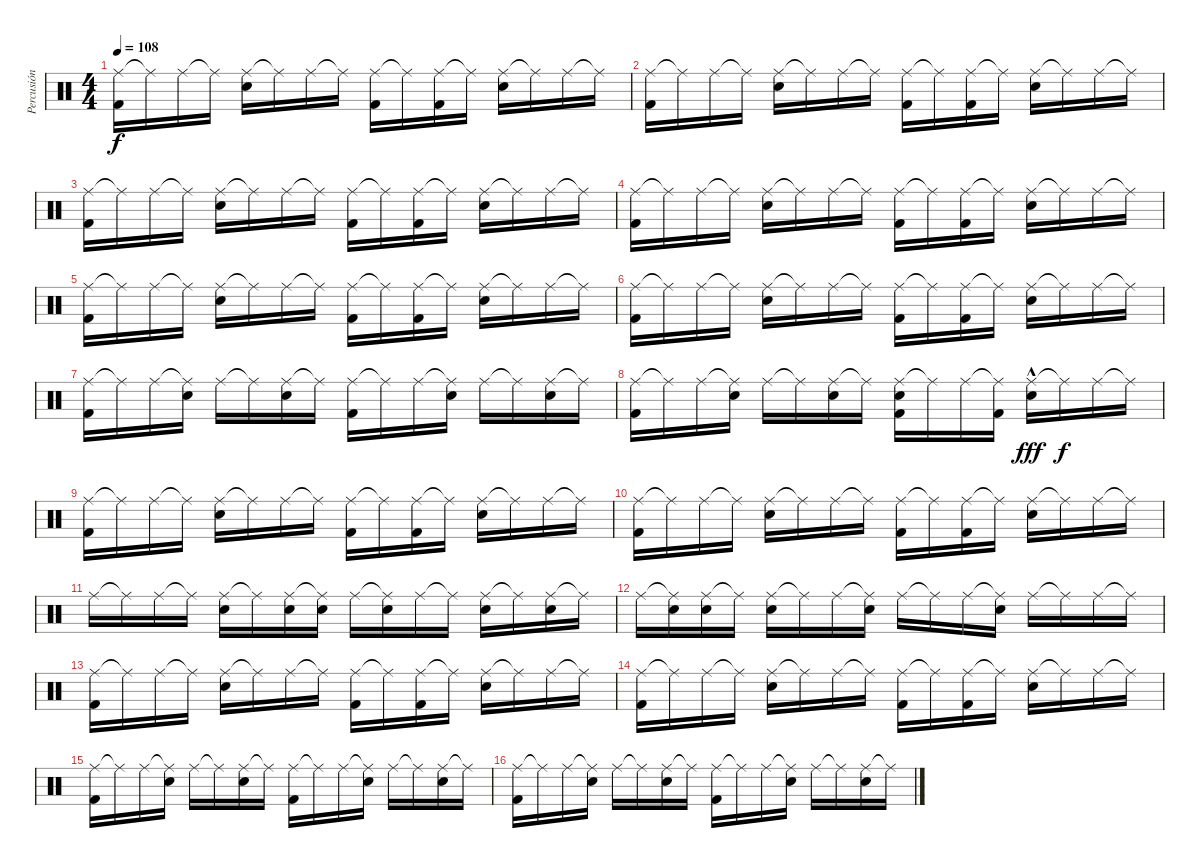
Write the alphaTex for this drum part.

\track ("Percusión" "Percusión") {instrument percussion}
\staff {score}
\articulation defaults
\ts (4 4)
\tempo 108
\clef neutral
\ks c
("Ride (middle)" "Kick (hit) 2").16{dy f} "Ride (middle)"{t}.16 "Ride (middle)".16 "Ride (middle)"{t}.16 ("Ride (middle)" "Snare (hit) 2").16 "Ride (middle)"{t}.16 "Ride (middle)".16 "Ride (middle)"{t}.16 ("Ride (middle)" "Kick (hit) 2").16 "Ride (middle)"{t}.16 ("Ride (middle)" "Kick (hit) 2").16 "Ride (middle)"{t}.16 ("Ride (middle)" "Snare (hit) 2").16 "Ride (middle)"{t}.16 "Ride (middle)".16 "Ride (middle)"{t}.16 |
("Ride (middle)" "Kick (hit) 2").16 "Ride (middle)"{t}.16 "Ride (middle)".16 "Ride (middle)"{t}.16 ("Ride (middle)" "Snare (hit) 2").16 "Ride (middle)"{t}.16 "Ride (middle)".16 "Ride (middle)"{t}.16 ("Ride (middle)" "Kick (hit) 2").16 "Ride (middle)"{t}.16 ("Ride (middle)" "Kick (hit) 2").16 "Ride (middle)"{t}.16 ("Ride (middle)" "Snare (hit) 2").16 "Ride (middle)"{t}.16 "Ride (middle)".16 "Ride (middle)"{t}.16 |
("Ride (middle)" "Kick (hit) 2").16 "Ride (middle)"{t}.16 "Ride (middle)".16 "Ride (middle)"{t}.16 ("Ride (middle)" "Snare (hit) 2").16 "Ride (middle)"{t}.16 "Ride (middle)".16 "Ride (middle)"{t}.16 ("Ride (middle)" "Kick (hit) 2").16 "Ride (middle)"{t}.16 ("Ride (middle)" "Kick (hit) 2").16 "Ride (middle)"{t}.16 ("Ride (middle)" "Snare (hit) 2").16 "Ride (middle)"{t}.16 "Ride (middle)".16 "Ride (middle)"{t}.16 |
("Ride (middle)" "Kick (hit) 2").16 "Ride (middle)"{t}.16 "Ride (middle)".16 "Ride (middle)"{t}.16 ("Ride (middle)" "Snare (hit) 2").16 "Ride (middle)"{t}.16 "Ride (middle)".16 "Ride (middle)"{t}.16 ("Ride (middle)" "Kick (hit) 2").16 "Ride (middle)"{t}.16 ("Ride (middle)" "Kick (hit) 2").16 "Ride (middle)"{t}.16 ("Ride (middle)" "Snare (hit) 2").16 "Ride (middle)"{t}.16 "Ride (middle)".16 "Ride (middle)"{t}.16 |
("Ride (middle)" "Kick (hit) 2").16 "Ride (middle)"{t}.16 "Ride (middle)".16 "Ride (middle)"{t}.16 ("Ride (middle)" "Snare (hit) 2").16 "Ride (middle)"{t}.16 "Ride (middle)".16 "Ride (middle)"{t}.16 ("Ride (middle)" "Kick (hit) 2").16 "Ride (middle)"{t}.16 ("Ride (middle)" "Kick (hit) 2").16 "Ride (middle)"{t}.16 ("Ride (middle)" "Snare (hit) 2").16 "Ride (middle)"{t}.16 "Ride (middle)".16 "Ride (middle)"{t}.16 |
("Ride (middle)" "Kick (hit) 2").16 "Ride (middle)"{t}.16 "Ride (middle)".16 "Ride (middle)"{t}.16 ("Ride (middle)" "Snare (hit) 2").16 "Ride (middle)"{t}.16 "Ride (middle)".16 "Ride (middle)"{t}.16 ("Ride (middle)" "Kick (hit) 2").16 "Ride (middle)"{t}.16 ("Ride (middle)" "Kick (hit) 2").16 "Ride (middle)"{t}.16 ("Ride (middle)" "Snare (hit) 2").16 "Ride (middle)"{t}.16 "Ride (middle)".16 "Ride (middle)"{t}.16 |
("Ride (middle)" "Kick (hit) 2").16 "Ride (middle)"{t}.16 "Ride (middle)".16 ("Ride (middle)"{t} "Snare (hit) 2").16 "Ride (middle)".16 "Ride (middle)"{t}.16 ("Ride (middle)" "Snare (hit) 2").16 "Ride (middle)"{t}.16 ("Ride (middle)" "Kick (hit) 2").16 "Ride (middle)"{t}.16 "Ride (middle)".16 ("Ride (middle)"{t} "Snare (hit) 2").16 "Ride (middle)".16 "Ride (middle)"{t}.16 ("Ride (middle)" "Snare (hit) 2").16 "Ride (middle)"{t}.16 |
("Ride (middle)" "Kick (hit) 2").16 "Ride (middle)"{t}.16 "Ride (middle)".16 ("Ride (middle)"{t} "Snare (hit) 2").16 "Ride (middle)".16 "Ride (middle)"{t}.16 ("Ride (middle)" "Snare (hit) 2").16 "Ride (middle)"{t}.16 ("Ride (middle)" "Snare (hit) 2" "Kick (hit) 2").16 "Ride (middle)"{t}.16 "Ride (middle)".16 ("Ride (middle)"{t} "Kick (hit) 2").16 ("Ride (middle)" "Snare (hit) 2"{hac}).16{dy fff} "Ride (middle)"{t}.16{dy f} "Ride (middle)".16 "Ride (middle)"{t}.16 |
("Ride (middle)" "Kick (hit) 2").16 "Ride (middle)"{t}.16 "Ride (middle)".16 "Ride (middle)"{t}.16 ("Ride (middle)" "Snare (hit) 2").16 "Ride (middle)"{t}.16 "Ride (middle)".16 "Ride (middle)"{t}.16 ("Ride (middle)" "Kick (hit) 2").16 "Ride (middle)"{t}.16 ("Ride (middle)" "Kick (hit) 2").16 "Ride (middle)"{t}.16 ("Ride (middle)" "Snare (hit) 2").16 "Ride (middle)"{t}.16 "Ride (middle)".16 "Ride (middle)"{t}.16 |
("Ride (middle)" "Kick (hit) 2").16 "Ride (middle)"{t}.16 "Ride (middle)".16 "Ride (middle)"{t}.16 ("Ride (middle)" "Snare (hit) 2").16 "Ride (middle)"{t}.16 "Ride (middle)".16 "Ride (middle)"{t}.16 ("Ride (middle)" "Kick (hit) 2").16 "Ride (middle)"{t}.16 ("Ride (middle)" "Kick (hit) 2").16 "Ride (middle)"{t}.16 ("Ride (middle)" "Snare (hit) 2").16 "Ride (middle)"{t}.16 "Ride (middle)".16 "Ride (middle)"{t}.16 |
"Ride (middle)".16 "Ride (middle)"{t}.16 "Ride (middle)".16 "Ride (middle)"{t}.16 ("Ride (middle)" "Snare (hit) 2").16 "Ride (middle)"{t}.16 ("Ride (middle)" "Snare (hit) 2").16 ("Ride (middle)"{t} "Snare (hit) 2").16 "Ride (middle)".16 ("Ride (middle)"{t} "Snare (hit) 2").16 "Ride (middle)".16 "Ride (middle)"{t}.16 ("Ride (middle)" "Snare (hit) 2").16 "Ride (middle)"{t}.16 ("Ride (middle)" "Snare (hit) 2").16 "Ride (middle)"{t}.16 |
"Ride (middle)".16 ("Ride (middle)"{t} "Snare (hit) 2").16 ("Ride (middle)" "Snare (hit) 2").16 "Ride (middle)"{t}.16 ("Ride (middle)" "Snare (hit) 2").16 "Ride (middle)"{t}.16 "Ride (middle)".16 ("Ride (middle)"{t} "Snare (hit) 2").16 "Ride (middle)".16 "Ride (middle)"{t}.16 "Ride (middle)".16 ("Ride (middle)"{t} "Snare (hit) 2").16 "Ride (middle)".16 "Ride (middle)"{t}.16 "Ride (middle)".16 "Ride (middle)"{t}.16 |
("Ride (middle)" "Kick (hit) 2").16 "Ride (middle)"{t}.16 "Ride (middle)".16 "Ride (middle)"{t}.16 ("Ride (middle)" "Snare (hit) 2").16 "Ride (middle)"{t}.16 "Ride (middle)".16 "Ride (middle)"{t}.16 ("Ride (middle)" "Kick (hit) 2").16 "Ride (middle)"{t}.16 ("Ride (middle)" "Kick (hit) 2").16 "Ride (middle)"{t}.16 ("Ride (middle)" "Snare (hit) 2").16 "Ride (middle)"{t}.16 "Ride (middle)".16 "Ride (middle)"{t}.16 |
("Ride (middle)" "Kick (hit) 2").16 "Ride (middle)"{t}.16 "Ride (middle)".16 "Ride (middle)"{t}.16 ("Ride (middle)" "Snare (hit) 2").16 "Ride (middle)"{t}.16 "Ride (middle)".16 "Ride (middle)"{t}.16 ("Ride (middle)" "Kick (hit) 2").16 "Ride (middle)"{t}.16 ("Ride (middle)" "Kick (hit) 2").16 "Ride (middle)"{t}.16 ("Ride (middle)" "Snare (hit) 2").16 "Ride (middle)"{t}.16 "Ride (middle)".16 "Ride (middle)"{t}.16 |
("Ride (middle)" "Kick (hit) 2").16 "Ride (middle)"{t}.16 "Ride (middle)".16 ("Ride (middle)"{t} "Snare (hit) 2").16 "Ride (middle)".16 "Ride (middle)"{t}.16 ("Ride (middle)" "Snare (hit) 2").16 "Ride (middle)"{t}.16 ("Ride (middle)" "Kick (hit) 2").16 "Ride (middle)"{t}.16 "Ride (middle)".16 ("Ride (middle)"{t} "Snare (hit) 2").16 "Ride (middle)".16 "Ride (middle)"{t}.16 ("Ride (middle)" "Snare (hit) 2").16 "Ride (middle)"{t}.16 |
("Ride (middle)" "Kick (hit) 2").16 "Ride (middle)"{t}.16 "Ride (middle)".16 ("Ride (middle)"{t} "Snare (hit) 2").16 "Ride (middle)".16 "Ride (middle)"{t}.16 ("Ride (middle)" "Snare (hit) 2").16 "Ride (middle)"{t}.16 ("Ride (middle)" "Kick (hit) 2").16 "Ride (middle)"{t}.16 "Ride (middle)".16 ("Ride (middle)"{t} "Snare (hit) 2").16 "Ride (middle)".16 "Ride (middle)"{t}.16 ("Ride (middle)" "Snare (hit) 2").16 "Ride (middle)"{t}.16
